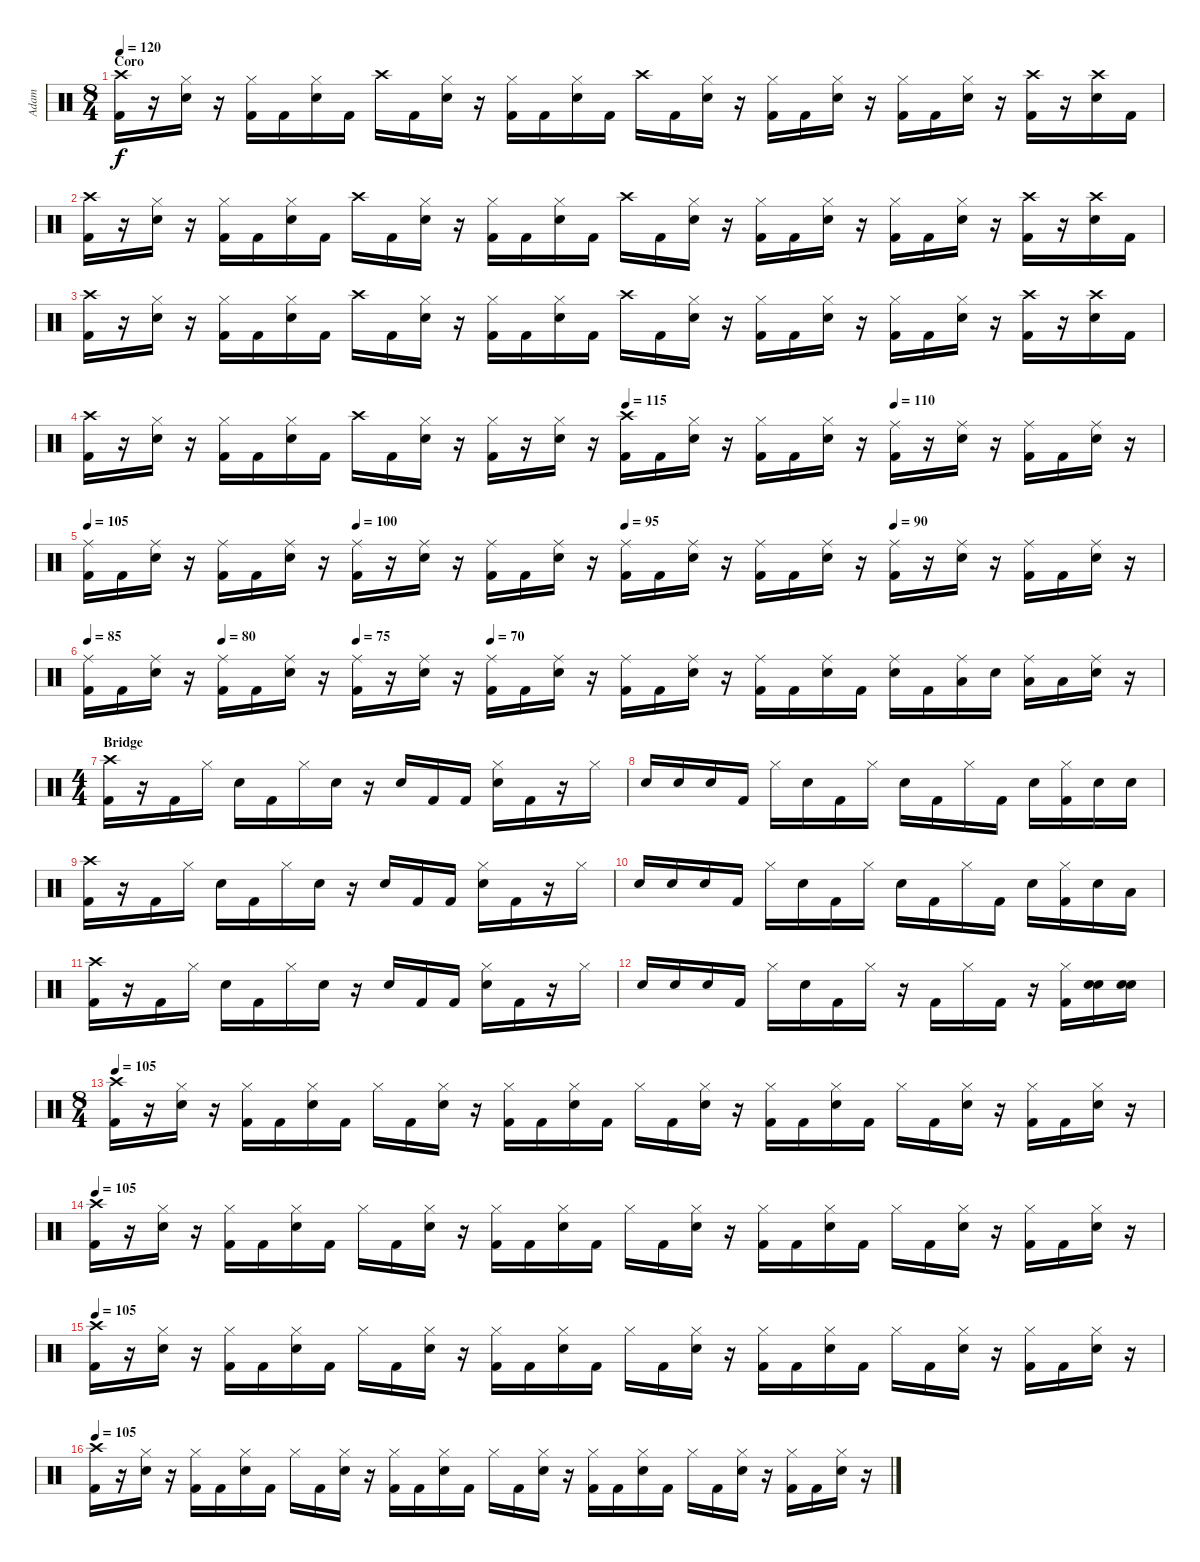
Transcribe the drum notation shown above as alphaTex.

\track ("Adam" "Adam") {instrument percussion}
\staff {score}
\articulation defaults
\ts (8 4)
\section ("" "Coro")
\tempo 120
\clef neutral
\ks c
("Crash high (hit)" "Kick (hit) 2").16{dy f} r.16 ("Hi-Hat (closed)" "Snare (hit) 2").16 r.16 ("Hi-Hat (closed)" "Kick (hit) 2").16 "Kick (hit) 2".16 ("Hi-Hat (closed)" "Snare (hit) 2").16 "Kick (hit) 2".16 "Crash high (hit)".16 "Kick (hit) 2".16 ("Hi-Hat (closed)" "Snare (hit) 2").16 r.16 ("Hi-Hat (closed)" "Kick (hit) 2").16 "Kick (hit) 2".16 ("Hi-Hat (closed)" "Snare (hit) 2").16 "Kick (hit) 2".16 "Crash high (hit)".16 "Kick (hit) 2".16 ("Hi-Hat (closed)" "Snare (hit) 2").16 r.16 ("Hi-Hat (closed)" "Kick (hit) 2").16 "Kick (hit) 2".16 ("Hi-Hat (closed)" "Snare (hit) 2").16 r.16 ("Hi-Hat (closed)" "Kick (hit) 2").16 "Kick (hit) 2".16 ("Hi-Hat (closed)" "Snare (hit) 2").16 r.16 ("Crash high (hit)" "Kick (hit) 2").16 r.16 ("Crash high (hit)" "Snare (hit) 2").16 "Kick (hit) 2".16 |
("Crash high (hit)" "Kick (hit) 2").16 r.16 ("Hi-Hat (closed)" "Snare (hit) 2").16 r.16 ("Hi-Hat (closed)" "Kick (hit) 2").16 "Kick (hit) 2".16 ("Hi-Hat (closed)" "Snare (hit) 2").16 "Kick (hit) 2".16 "Crash high (hit)".16 "Kick (hit) 2".16 ("Hi-Hat (closed)" "Snare (hit) 2").16 r.16 ("Hi-Hat (closed)" "Kick (hit) 2").16 "Kick (hit) 2".16 ("Hi-Hat (closed)" "Snare (hit) 2").16 "Kick (hit) 2".16 "Crash high (hit)".16 "Kick (hit) 2".16 ("Hi-Hat (closed)" "Snare (hit) 2").16 r.16 ("Hi-Hat (closed)" "Kick (hit) 2").16 "Kick (hit) 2".16 ("Hi-Hat (closed)" "Snare (hit) 2").16 r.16 ("Hi-Hat (closed)" "Kick (hit) 2").16 "Kick (hit) 2".16 ("Hi-Hat (closed)" "Snare (hit) 2").16 r.16 ("Crash high (hit)" "Kick (hit) 2").16 r.16 ("Crash high (hit)" "Snare (hit) 2").16 "Kick (hit) 2".16 |
("Crash high (hit)" "Kick (hit) 2").16 r.16 ("Hi-Hat (closed)" "Snare (hit) 2").16 r.16 ("Hi-Hat (closed)" "Kick (hit) 2").16 "Kick (hit) 2".16 ("Hi-Hat (closed)" "Snare (hit) 2").16 "Kick (hit) 2".16 "Crash high (hit)".16 "Kick (hit) 2".16 ("Hi-Hat (closed)" "Snare (hit) 2").16 r.16 ("Hi-Hat (closed)" "Kick (hit) 2").16 "Kick (hit) 2".16 ("Hi-Hat (closed)" "Snare (hit) 2").16 "Kick (hit) 2".16 "Crash high (hit)".16 "Kick (hit) 2".16 ("Hi-Hat (closed)" "Snare (hit) 2").16 r.16 ("Hi-Hat (closed)" "Kick (hit) 2").16 "Kick (hit) 2".16 ("Hi-Hat (closed)" "Snare (hit) 2").16 r.16 ("Hi-Hat (closed)" "Kick (hit) 2").16 "Kick (hit) 2".16 ("Hi-Hat (closed)" "Snare (hit) 2").16 r.16 ("Crash high (hit)" "Kick (hit) 2").16 r.16 ("Crash high (hit)" "Snare (hit) 2").16 "Kick (hit) 2".16 |
\tempo (115 0.5)
\tempo (110 0.75)
("Crash high (hit)" "Kick (hit) 2").16 r.16 ("Hi-Hat (closed)" "Snare (hit) 2").16 r.16 ("Hi-Hat (closed)" "Kick (hit) 2").16 "Kick (hit) 2".16 ("Hi-Hat (closed)" "Snare (hit) 2").16 "Kick (hit) 2".16 "Crash high (hit)".16 "Kick (hit) 2".16 ("Hi-Hat (closed)" "Snare (hit) 2").16 r.16 ("Hi-Hat (closed)" "Kick (hit) 2").16 r.16 ("Hi-Hat (closed)" "Snare (hit) 2").16 r.16 ("Crash high (hit)" "Kick (hit) 2").16 "Kick (hit) 2".16 ("Hi-Hat (closed)" "Snare (hit) 2").16 r.16 ("Hi-Hat (closed)" "Kick (hit) 2").16 "Kick (hit) 2".16 ("Hi-Hat (closed)" "Snare (hit) 2").16 r.16 ("Ride (middle)" "Kick (hit) 2").16 r.16 ("Ride (middle)" "Snare (hit) 2").16 r.16 ("Ride (middle)" "Kick (hit) 2").16 "Kick (hit) 2".16 ("Ride (middle)" "Snare (hit) 2").16 r.16 |
\tempo 105
\tempo (100 0.25)
\tempo (95 0.5)
\tempo (90 0.75)
("Ride (middle)" "Kick (hit) 2").16 "Kick (hit) 2".16 ("Ride (middle)" "Snare (hit) 2").16 r.16 ("Ride (middle)" "Kick (hit) 2").16 "Kick (hit) 2".16 ("Ride (middle)" "Snare (hit) 2").16 r.16 ("Ride (middle)" "Kick (hit) 2").16 r.16 ("Ride (middle)" "Snare (hit) 2").16 r.16 ("Ride (middle)" "Kick (hit) 2").16 "Kick (hit) 2".16 ("Ride (middle)" "Snare (hit) 2").16 r.16 ("Ride (middle)" "Kick (hit) 2").16 "Kick (hit) 2".16 ("Ride (middle)" "Snare (hit) 2").16 r.16 ("Ride (middle)" "Kick (hit) 2").16 "Kick (hit) 2".16 ("Ride (middle)" "Snare (hit) 2").16 r.16 ("Ride (middle)" "Kick (hit) 2").16 r.16 ("Ride (middle)" "Snare (hit) 2").16 r.16 ("Ride (middle)" "Kick (hit) 2").16 "Kick (hit) 2".16 ("Ride (middle)" "Snare (hit) 2").16 r.16 |
\tempo 85
\tempo (80 0.125)
\tempo (75 0.25)
\tempo (70 0.375)
("Ride (middle)" "Kick (hit) 2").16 "Kick (hit) 2".16 ("Ride (middle)" "Snare (hit) 2").16 r.16 ("Ride (middle)" "Kick (hit) 2").16 "Kick (hit) 2".16 ("Ride (middle)" "Snare (hit) 2").16 r.16 ("Ride (middle)" "Kick (hit) 2").16 r.16 ("Ride (middle)" "Snare (hit) 2").16 r.16 ("Ride (middle)" "Kick (hit) 2").16 "Kick (hit) 2".16 ("Ride (middle)" "Snare (hit) 2").16 r.16 ("Ride (middle)" "Kick (hit) 2").16 "Kick (hit) 2".16 ("Ride (middle)" "Snare (hit) 2").16 r.16 ("Ride (middle)" "Kick (hit) 2").16 "Kick (hit) 2".16 ("Ride (middle)" "Snare (hit) 2").16 "Kick (hit) 2".16 ("Ride (middle)" "Snare (hit) 2").16 "Kick (hit) 2".16 ("Ride (middle)" "Low Floor Tom (hit)").16 "Snare (hit) 2".16 ("Ride (middle)" "Low Tom (hit)").16 "Low Floor Tom (hit)".16 ("Ride (middle)" "Snare (hit) 2").16 r.16 |
\ts (4 4)
\section ("" "Bridge")
("Crash high (hit)" "Kick (hit) 2").16 r.16 "Kick (hit) 2".16 "Hi-Hat (closed)".16 "Snare (hit) 2".16 "Kick (hit) 2".16 "Hi-Hat (closed)".16 "Snare (hit) 2".16 r.16 "Snare (hit) 2".16 "Kick (hit) 2".16 "Kick (hit) 2".16 ("Hi-Hat (closed)" "Snare (hit) 2").16 "Kick (hit) 2".16 r.16 "Hi-Hat (closed)".16 |
"Snare (hit) 2".16 "Snare (hit) 2".16 "Snare (hit) 2".16 "Kick (hit) 2".16 "Hi-Hat (closed)".16 "Snare (hit) 2".16 "Kick (hit) 2".16 "Hi-Hat (closed)".16 "Snare (hit) 2".16 "Kick (hit) 2".16 "Hi-Hat (closed)".16 "Kick (hit) 2".16 "Snare (hit) 2".16 ("Hi-Hat (closed)" "Kick (hit) 2").16 "Snare (hit) 2".16 "Snare (hit) 2".16 |
("Crash high (hit)" "Kick (hit) 2").16 r.16 "Kick (hit) 2".16 "Hi-Hat (closed)".16 "Snare (hit) 2".16 "Kick (hit) 2".16 "Hi-Hat (closed)".16 "Snare (hit) 2".16 r.16 "Snare (hit) 2".16 "Kick (hit) 2".16 "Kick (hit) 2".16 ("Hi-Hat (closed)" "Snare (hit) 2").16 "Kick (hit) 2".16 r.16 "Hi-Hat (closed)".16 |
"Snare (hit) 2".16 "Snare (hit) 2".16 "Snare (hit) 2".16 "Kick (hit) 2".16 "Hi-Hat (closed)".16 "Snare (hit) 2".16 "Kick (hit) 2".16 "Hi-Hat (closed)".16 "Snare (hit) 2".16 "Kick (hit) 2".16 "Hi-Hat (closed)".16 "Kick (hit) 2".16 "Snare (hit) 2".16 ("Hi-Hat (closed)" "Kick (hit) 2").16 "Snare (hit) 2".16 "Low Floor Tom (hit)".16 |
("Crash high (hit)" "Kick (hit) 2").16 r.16 "Kick (hit) 2".16 "Hi-Hat (closed)".16 "Snare (hit) 2".16 "Kick (hit) 2".16 "Hi-Hat (closed)".16 "Snare (hit) 2".16 r.16 "Snare (hit) 2".16 "Kick (hit) 2".16 "Kick (hit) 2".16 ("Hi-Hat (closed)" "Snare (hit) 2").16 "Kick (hit) 2".16 r.16 "Hi-Hat (closed)".16 |
"Snare (hit) 2".16 "Snare (hit) 2".16 "Snare (hit) 2".16 "Kick (hit) 2".16 "Hi-Hat (closed)".16 "Snare (hit) 2".16 "Kick (hit) 2".16 "Hi-Hat (closed)".16 r.16 "Kick (hit) 2".16 "Hi-Hat (closed)".16 "Kick (hit) 2".16 r.16 ("Hi-Hat (closed)" "Kick (hit) 2").16 ("Snare (hit) 2" "Electric Snare (hit)").16 ("Snare (hit) 2" "Electric Snare (hit)").16 |
\ts (8 4)
\tempo 120
\tempo 105
("Crash high (hit)" "Kick (hit) 2").16 r.16 ("Hi-Hat (closed)" "Snare (hit) 2").16 r.16 ("Hi-Hat (closed)" "Kick (hit) 2").16 "Kick (hit) 2".16 ("Hi-Hat (closed)" "Snare (hit) 2").16 "Kick (hit) 2".16 "Hi-Hat (closed)".16 "Kick (hit) 2".16 ("Hi-Hat (closed)" "Snare (hit) 2").16 r.16 ("Hi-Hat (closed)" "Kick (hit) 2").16 "Kick (hit) 2".16 ("Hi-Hat (closed)" "Snare (hit) 2").16 "Kick (hit) 2".16 "Hi-Hat (closed)".16 "Kick (hit) 2".16 ("Hi-Hat (closed)" "Snare (hit) 2").16 r.16 ("Hi-Hat (closed)" "Kick (hit) 2").16 "Kick (hit) 2".16 ("Hi-Hat (closed)" "Snare (hit) 2").16 "Kick (hit) 2".16 "Hi-Hat (closed)".16 "Kick (hit) 2".16 ("Hi-Hat (closed)" "Snare (hit) 2").16 r.16 ("Hi-Hat (closed)" "Kick (hit) 2").16 "Kick (hit) 2".16 ("Hi-Hat (closed)" "Snare (hit) 2").16 r.16 |
\tempo 120
\tempo 105
("Crash high (hit)" "Kick (hit) 2").16 r.16 ("Hi-Hat (closed)" "Snare (hit) 2").16 r.16 ("Hi-Hat (closed)" "Kick (hit) 2").16 "Kick (hit) 2".16 ("Hi-Hat (closed)" "Snare (hit) 2").16 "Kick (hit) 2".16 "Hi-Hat (closed)".16 "Kick (hit) 2".16 ("Hi-Hat (closed)" "Snare (hit) 2").16 r.16 ("Hi-Hat (closed)" "Kick (hit) 2").16 "Kick (hit) 2".16 ("Hi-Hat (closed)" "Snare (hit) 2").16 "Kick (hit) 2".16 "Hi-Hat (closed)".16 "Kick (hit) 2".16 ("Hi-Hat (closed)" "Snare (hit) 2").16 r.16 ("Hi-Hat (closed)" "Kick (hit) 2").16 "Kick (hit) 2".16 ("Hi-Hat (closed)" "Snare (hit) 2").16 "Kick (hit) 2".16 "Hi-Hat (closed)".16 "Kick (hit) 2".16 ("Hi-Hat (closed)" "Snare (hit) 2").16 r.16 ("Hi-Hat (closed)" "Kick (hit) 2").16 "Kick (hit) 2".16 ("Hi-Hat (closed)" "Snare (hit) 2").16 r.16 |
\tempo 120
\tempo 105
("Crash high (hit)" "Kick (hit) 2").16 r.16 ("Hi-Hat (closed)" "Snare (hit) 2").16 r.16 ("Hi-Hat (closed)" "Kick (hit) 2").16 "Kick (hit) 2".16 ("Hi-Hat (closed)" "Snare (hit) 2").16 "Kick (hit) 2".16 "Hi-Hat (closed)".16 "Kick (hit) 2".16 ("Hi-Hat (closed)" "Snare (hit) 2").16 r.16 ("Hi-Hat (closed)" "Kick (hit) 2").16 "Kick (hit) 2".16 ("Hi-Hat (closed)" "Snare (hit) 2").16 "Kick (hit) 2".16 "Hi-Hat (closed)".16 "Kick (hit) 2".16 ("Hi-Hat (closed)" "Snare (hit) 2").16 r.16 ("Hi-Hat (closed)" "Kick (hit) 2").16 "Kick (hit) 2".16 ("Hi-Hat (closed)" "Snare (hit) 2").16 "Kick (hit) 2".16 "Hi-Hat (closed)".16 "Kick (hit) 2".16 ("Hi-Hat (closed)" "Snare (hit) 2").16 r.16 ("Hi-Hat (closed)" "Kick (hit) 2").16 "Kick (hit) 2".16 ("Hi-Hat (closed)" "Snare (hit) 2").16 r.16 |
\tempo 120
\tempo 105
("Crash high (hit)" "Kick (hit) 2").16 r.16 ("Hi-Hat (closed)" "Snare (hit) 2").16 r.16 ("Hi-Hat (closed)" "Kick (hit) 2").16 "Kick (hit) 2".16 ("Hi-Hat (closed)" "Snare (hit) 2").16 "Kick (hit) 2".16 "Hi-Hat (closed)".16 "Kick (hit) 2".16 ("Hi-Hat (closed)" "Snare (hit) 2").16 r.16 ("Hi-Hat (closed)" "Kick (hit) 2").16 "Kick (hit) 2".16 ("Hi-Hat (closed)" "Snare (hit) 2").16 "Kick (hit) 2".16 "Hi-Hat (closed)".16 "Kick (hit) 2".16 ("Hi-Hat (closed)" "Snare (hit) 2").16 r.16 ("Hi-Hat (closed)" "Kick (hit) 2").16 "Kick (hit) 2".16 ("Hi-Hat (closed)" "Snare (hit) 2").16 "Kick (hit) 2".16 "Hi-Hat (closed)".16 "Kick (hit) 2".16 ("Hi-Hat (closed)" "Snare (hit) 2").16 r.16 ("Hi-Hat (closed)" "Kick (hit) 2").16 "Kick (hit) 2".16 ("Hi-Hat (closed)" "Snare (hit) 2").16 r.16
